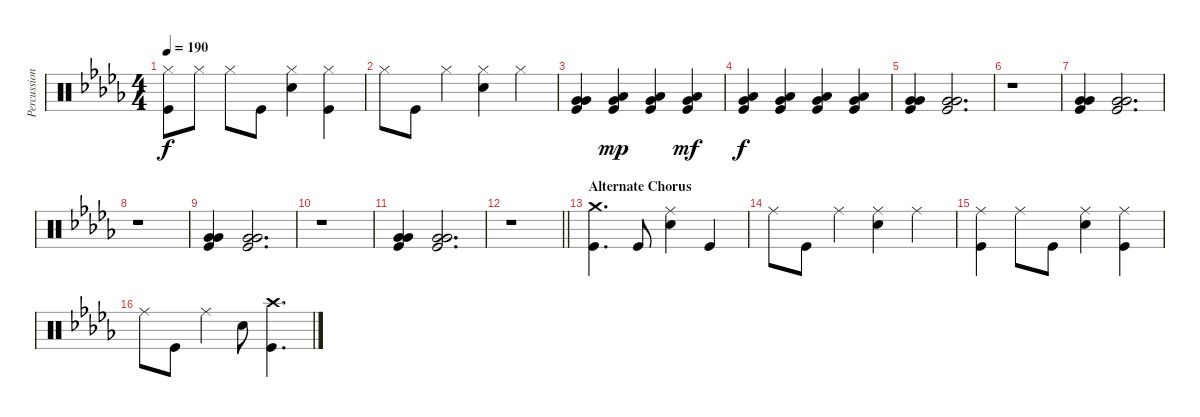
\track ("Percussion" "Percussion") {instrument percussion}
\staff {score}
\articulation defaults
\ts (4 4)
\tempo 190
\clef neutral
\ks db
("Hi-Hat (closed)" "Kick (hit)").8{dy f} "Hi-Hat (closed)".8 "Hi-Hat (closed)".8 "Kick (hit)".8 ("Hi-Hat (closed)" "Electric Snare (hit)").4 ("Hi-Hat (closed)" "Kick (hit)").4 |
"Hi-Hat (closed)".8 "Kick (hit)".8 "Hi-Hat (closed)".4 ("Hi-Hat (closed)" "Electric Snare (hit)").4 "Hi-Hat (closed)".4 |
("Very Low Tom (hit)" "Very Low Tom (hit)" "Kick (hit)").4 ("Very Low Tom (hit)" "Low Floor Tom (hit)" "Kick (hit)").4{dy mp} ("Very Low Tom (hit)" "Low Floor Tom (hit)" "Kick (hit)").4 ("Very Low Tom (hit)" "Low Floor Tom (hit)" "Kick (hit)").4{dy mf} |
("Very Low Tom (hit)" "Low Floor Tom (hit)" "Kick (hit)").4{dy f} ("Very Low Tom (hit)" "Low Floor Tom (hit)" "Kick (hit)").4 ("Very Low Tom (hit)" "Low Floor Tom (hit)" "Kick (hit)").4 ("Very Low Tom (hit)" "Low Floor Tom (hit)" "Kick (hit)").4 |
("Very Low Tom (hit)" "Very Low Tom (hit)" "Kick (hit)").4 ("Very Low Tom (hit)" "Very Low Tom (hit)" "Kick (hit)").2{d} |
r.1 |
("Very Low Tom (hit)" "Very Low Tom (hit)" "Kick (hit)").4 ("Very Low Tom (hit)" "Very Low Tom (hit)" "Kick (hit)").2{d} |
r.1 |
("Very Low Tom (hit)" "Very Low Tom (hit)" "Kick (hit)").4 ("Very Low Tom (hit)" "Very Low Tom (hit)" "Kick (hit)").2{d} |
r.1 |
("Very Low Tom (hit)" "Very Low Tom (hit)" "Kick (hit)").4 ("Very Low Tom (hit)" "Very Low Tom (hit)" "Kick (hit)").2{d} |
\barLineRight lightlight
r.1 |
\section ("" "Alternate Chorus")
("Crash medium (hit)" "Kick (hit)").4{d} "Kick (hit)".8 ("Ride (middle)" "Electric Snare (hit)").4 "Kick (hit)".4 |
"Ride (middle)".8 "Kick (hit)".8 "Ride (middle)".4 ("Ride (middle)" "Electric Snare (hit)").4 "Ride (middle)".4 |
("Ride (middle)" "Kick (hit)").4 "Ride (middle)".8 "Kick (hit)".8 ("Ride (middle)" "Electric Snare (hit)").4 ("Ride (middle)" "Kick (hit)").4 |
"Ride (middle)".8 "Kick (hit)".8 "Ride (middle)".4 "Electric Snare (hit)".8 ("Crash high (hit)" "Kick (hit)").4{d}
